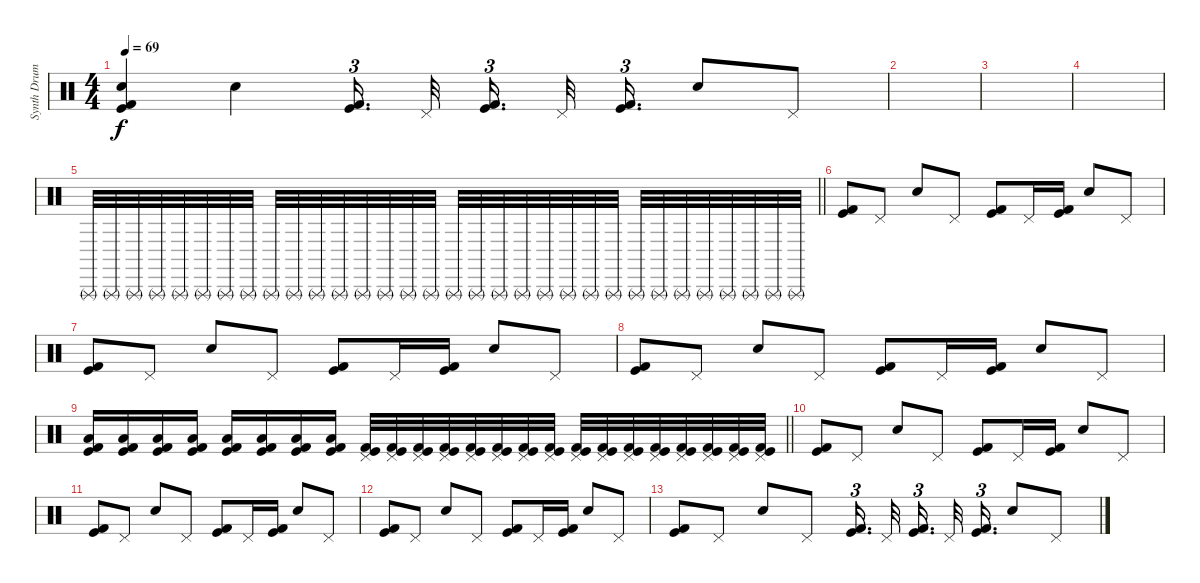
\track ("Synth Drums" "Synth Drum") {instrument percussion}
\staff {score}
\articulation defaults
\ts (4 4)
\tempo 69
\clef neutral
\ks aminor
("Kick (hit) 2" "Kick (hit)" "Snare (hit) 2").4{dy f volume 0} "Electric Snare (hit)".4 ("Kick (hit) 2" "Kick (hit)").16{d tu (3 2) beam splitsecondary} "Pedal Hi-Hat (hit)".32{beam splitsecondary} ("Kick (hit) 2" "Kick (hit)").16{d tu (3 2) beam splitsecondary} "Pedal Hi-Hat (hit)".32 ("Kick (hit) 2" "Kick (hit)").16{d tu (3 2)} "Electric Snare (hit)".8 "Pedal Hi-Hat (hit)".8 |
\ks c
|
|
\ks aminor
|
\barLineRight lightlight "Triangle (rnute)".32{volume 10} "Triangle (rnute)".32 "Triangle (rnute)".32 "Triangle (rnute)".32 "Triangle (rnute)".32 "Triangle (rnute)".32 "Triangle (rnute)".32 "Triangle (rnute)".32 "Triangle (rnute)".32 "Triangle (rnute)".32 "Triangle (rnute)".32 "Triangle (rnute)".32 "Triangle (rnute)".32 "Triangle (rnute)".32 "Triangle (rnute)".32 "Triangle (rnute)".32 "Triangle (rnute)".32 "Triangle (rnute)".32 "Triangle (rnute)".32 "Triangle (rnute)".32 "Triangle (rnute)".32 "Triangle (rnute)".32 "Triangle (rnute)".32 "Triangle (rnute)".32 "Triangle (rnute)".32 "Triangle (rnute)".32 "Triangle (rnute)".32 "Triangle (rnute)".32 "Triangle (rnute)".32 "Triangle (rnute)".32 "Triangle (rnute)".32 "Triangle (rnute)".32
|
("Kick (hit) 2" "Kick (hit)").8{volume 12} "Pedal Hi-Hat (hit)".8 "Electric Snare (hit)".8 "Pedal Hi-Hat (hit)".8 ("Kick (hit) 2" "Kick (hit)").8 "Pedal Hi-Hat (hit)".16 ("Kick (hit) 2" "Kick (hit)").16 "Electric Snare (hit)".8 "Pedal Hi-Hat (hit)".8 |
("Kick (hit) 2" "Kick (hit)").8 "Pedal Hi-Hat (hit)".8 "Electric Snare (hit)".8 "Pedal Hi-Hat (hit)".8 ("Kick (hit) 2" "Kick (hit)").8 "Pedal Hi-Hat (hit)".16 ("Kick (hit) 2" "Kick (hit)").16 "Electric Snare (hit)".8 "Pedal Hi-Hat (hit)".8 |
("Kick (hit) 2" "Kick (hit)").8 "Pedal Hi-Hat (hit)".8 "Electric Snare (hit)".8 "Pedal Hi-Hat (hit)".8 ("Kick (hit) 2" "Kick (hit)").8 "Pedal Hi-Hat (hit)".16 ("Kick (hit) 2" "Kick (hit)").16 "Electric Snare (hit)".8 "Pedal Hi-Hat (hit)".8{volume 8} |
\barLineRight lightlight
("Low Floor Tom (hit)" "Kick (hit)" "Kick (hit) 2").16{volume 13} ("Low Floor Tom (hit)" "Kick (hit)" "Kick (hit) 2").16 ("Low Floor Tom (hit)" "Kick (hit)" "Kick (hit) 2").16 ("Low Floor Tom (hit)" "Kick (hit)" "Kick (hit) 2").16 ("Low Floor Tom (hit)" "Kick (hit)" "Kick (hit) 2").16 ("Low Floor Tom (hit)" "Kick (hit)" "Kick (hit) 2").16 ("Low Floor Tom (hit)" "Kick (hit)" "Kick (hit) 2").16 ("Low Floor Tom (hit)" "Kick (hit)" "Kick (hit) 2").16 ("Pedal Hi-Hat (hit)" "Kick (hit)" "Kick (hit) 2").32 ("Pedal Hi-Hat (hit)" "Kick (hit)" "Kick (hit) 2").32 ("Pedal Hi-Hat (hit)" "Kick (hit)" "Kick (hit) 2").32 ("Pedal Hi-Hat (hit)" "Kick (hit)" "Kick (hit) 2").32 ("Pedal Hi-Hat (hit)" "Kick (hit)" "Kick (hit) 2").32 ("Pedal Hi-Hat (hit)" "Kick (hit)" "Kick (hit) 2").32 ("Pedal Hi-Hat (hit)" "Kick (hit)" "Kick (hit) 2").32 ("Pedal Hi-Hat (hit)" "Kick (hit)" "Kick (hit) 2").32 ("Pedal Hi-Hat (hit)" "Kick (hit)" "Kick (hit) 2").32 ("Pedal Hi-Hat (hit)" "Kick (hit)" "Kick (hit) 2").32 ("Pedal Hi-Hat (hit)" "Kick (hit)" "Kick (hit) 2").32 ("Pedal Hi-Hat (hit)" "Kick (hit)" "Kick (hit) 2").32 ("Pedal Hi-Hat (hit)" "Kick (hit)" "Kick (hit) 2").32 ("Pedal Hi-Hat (hit)" "Kick (hit)" "Kick (hit) 2").32 ("Pedal Hi-Hat (hit)" "Kick (hit)" "Kick (hit) 2").32 ("Pedal Hi-Hat (hit)" "Kick (hit)" "Kick (hit) 2").32 |
("Kick (hit) 2" "Kick (hit)").8 "Pedal Hi-Hat (hit)".8 "Electric Snare (hit)".8 "Pedal Hi-Hat (hit)".8 ("Kick (hit) 2" "Kick (hit)").8 "Pedal Hi-Hat (hit)".16 ("Kick (hit) 2" "Kick (hit)").16 "Electric Snare (hit)".8 "Pedal Hi-Hat (hit)".8 |
("Kick (hit) 2" "Kick (hit)").8 "Pedal Hi-Hat (hit)".8 "Electric Snare (hit)".8 "Pedal Hi-Hat (hit)".8 ("Kick (hit) 2" "Kick (hit)").8 "Pedal Hi-Hat (hit)".16 ("Kick (hit) 2" "Kick (hit)").16 "Electric Snare (hit)".8 "Pedal Hi-Hat (hit)".8 |
("Kick (hit) 2" "Kick (hit)").8 "Pedal Hi-Hat (hit)".8 "Electric Snare (hit)".8 "Pedal Hi-Hat (hit)".8 ("Kick (hit) 2" "Kick (hit)").8 "Pedal Hi-Hat (hit)".16 ("Kick (hit) 2" "Kick (hit)").16 "Electric Snare (hit)".8 "Pedal Hi-Hat (hit)".8 |
("Kick (hit) 2" "Kick (hit)").8 "Pedal Hi-Hat (hit)".8 "Electric Snare (hit)".8 "Pedal Hi-Hat (hit)".8 ("Kick (hit) 2" "Kick (hit)").16{d tu (3 2) beam splitsecondary} "Pedal Hi-Hat (hit)".32{beam splitsecondary} ("Kick (hit) 2" "Kick (hit)").16{d tu (3 2) beam splitsecondary} "Pedal Hi-Hat (hit)".32 ("Kick (hit) 2" "Kick (hit)").16{d tu (3 2)} "Electric Snare (hit)".8 "Pedal Hi-Hat (hit)".8
